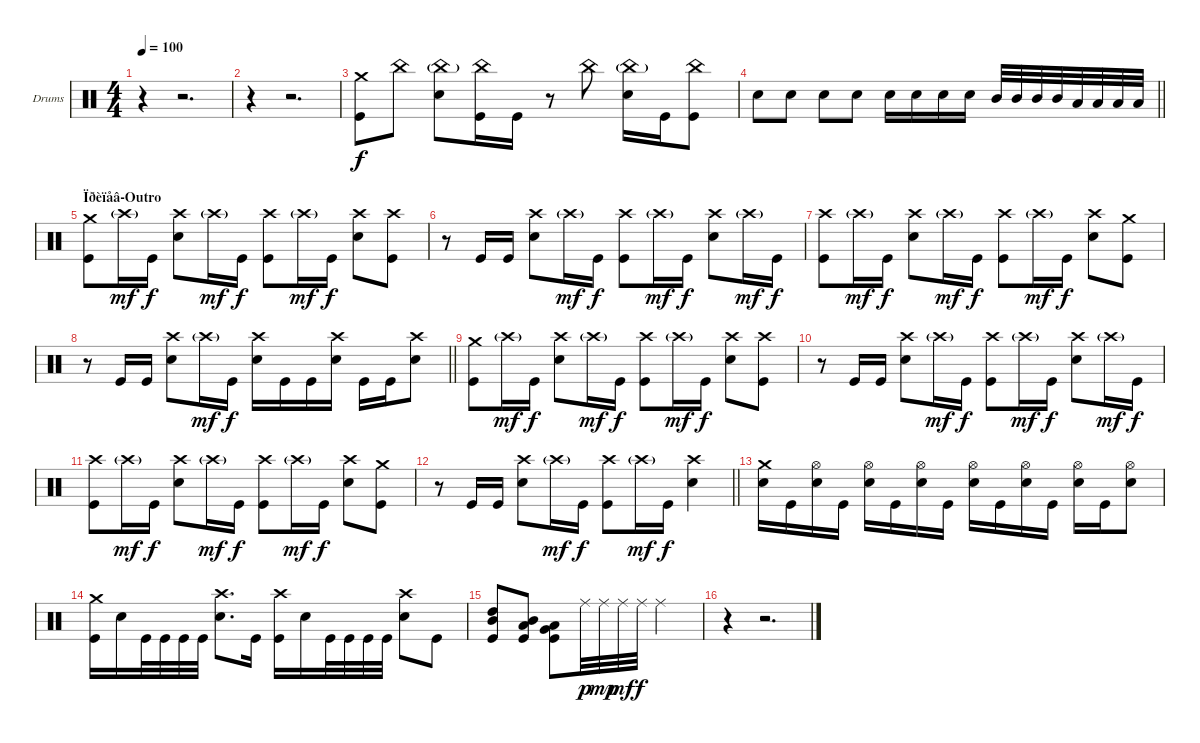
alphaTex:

\bracketExtendMode groupsimilarinstruments
\firstSystemTrackNameOrientation horizontal
\otherSystemsTrackNameOrientation horizontal
\track ("Drumkit" "Drums") {instrument percussion}
\staff {score}
\articulation defaults
\ts (4 4)
\tempo 100
\clef neutral
\ks c
r.4{dy p} r.2{d} |
r.4 r.2{d} |
("Crash medium (hit)" "Kick (hit)").8{dy f} "China (hit)".8 ("China (hit)"{g} "Snare (hit) 2").8 ("China (hit)" "Kick (hit)").16 "Kick (hit)".16 r.8 "China (hit)".8 ("China (hit)"{g} "Snare (hit) 2").16 "Kick (hit)".16 ("China (hit)" "Kick (hit)").8 |
\barLineRight lightlight "Snare (hit) 2".8 "Snare (hit) 2".8 "Snare (hit) 2".8 "Snare (hit) 2".8 "Snare (hit) 2".16 "Snare (hit) 2".16 "Snare (hit) 2".16 "Snare (hit) 2".16 "Mid Tom (hit)".32 "Mid Tom (hit)".32 "Mid Tom (hit)".32 "Mid Tom (hit)".32 "Low Tom (hit)".32 "Low Tom (hit)".32 "Low Tom (hit)".32 "Low Tom (hit)".32
|
\section ("" "Ïðèïåâ-Outro")
("Crash medium (hit)" "Kick (hit)").8 "Crash high (hit)"{g}.16{dy mf} "Kick (hit)".16{dy f} ("Crash high (hit)" "Snare (hit) 2").8 "Crash high (hit)"{g}.16{dy mf} "Kick (hit)".16{dy f} ("Crash high (hit)" "Kick (hit)").8 "Crash high (hit)"{g}.16{dy mf} "Kick (hit)".16{dy f} ("Crash high (hit)" "Snare (hit) 2").8 ("Crash high (hit)" "Kick (hit)").8 |
r.8 "Kick (hit)".16 "Kick (hit)".16 ("Crash high (hit)" "Snare (hit) 2").8 "Crash high (hit)"{g}.16{dy mf} "Kick (hit)".16{dy f} ("Crash high (hit)" "Kick (hit)").8 "Crash high (hit)"{g}.16{dy mf} "Kick (hit)".16{dy f} ("Crash high (hit)" "Snare (hit) 2").8 "Crash high (hit)"{g}.16{dy mf} "Kick (hit)".16{dy f} |
("Crash high (hit)" "Kick (hit)").8 "Crash high (hit)"{g}.16{dy mf} "Kick (hit)".16{dy f} ("Crash high (hit)" "Snare (hit) 2").8 "Crash high (hit)"{g}.16{dy mf} "Kick (hit)".16{dy f} ("Crash high (hit)" "Kick (hit)").8 "Crash high (hit)"{g}.16{dy mf} "Kick (hit)".16{dy f} ("Crash high (hit)" "Snare (hit) 2").8 ("Crash medium (hit)" "Kick (hit)").8 |
\barLineRight lightlight
r.8 "Kick (hit)".16 "Kick (hit)".16 ("Crash high (hit)" "Snare (hit) 2").8 "Crash high (hit)"{g}.16{dy mf} "Kick (hit)".16{dy f} ("Crash high (hit)" "Snare (hit) 2").16 "Kick (hit)".16 "Kick (hit)".16 ("Crash high (hit)" "Snare (hit) 2").16 "Kick (hit)".16 "Kick (hit)".16 ("Crash high (hit)" "Snare (hit) 2").8 |
("Crash medium (hit)" "Kick (hit)").8 "Crash high (hit)"{g}.16{dy mf} "Kick (hit)".16{dy f} ("Crash high (hit)" "Snare (hit) 2").8 "Crash high (hit)"{g}.16{dy mf} "Kick (hit)".16{dy f} ("Crash high (hit)" "Kick (hit)").8 "Crash high (hit)"{g}.16{dy mf} "Kick (hit)".16{dy f} ("Crash high (hit)" "Snare (hit) 2").8 ("Crash high (hit)" "Kick (hit)").8 |
r.8 "Kick (hit)".16 "Kick (hit)".16 ("Crash high (hit)" "Snare (hit) 2").8 "Crash high (hit)"{g}.16{dy mf} "Kick (hit)".16{dy f} ("Crash high (hit)" "Kick (hit)").8 "Crash high (hit)"{g}.16{dy mf} "Kick (hit)".16{dy f} ("Crash high (hit)" "Snare (hit) 2").8 "Crash high (hit)"{g}.16{dy mf} "Kick (hit)".16{dy f} |
("Crash high (hit)" "Kick (hit)").8 "Crash high (hit)"{g}.16{dy mf} "Kick (hit)".16{dy f} ("Crash high (hit)" "Snare (hit) 2").8 "Crash high (hit)"{g}.16{dy mf} "Kick (hit)".16{dy f} ("Crash high (hit)" "Kick (hit)").8 "Crash high (hit)"{g}.16{dy mf} "Kick (hit)".16{dy f} ("Crash high (hit)" "Snare (hit) 2").8 ("Crash medium (hit)" "Kick (hit)").8 |
\barLineRight lightlight
r.8 "Kick (hit)".16 "Kick (hit)".16 ("Crash high (hit)" "Snare (hit) 2").8 "Crash high (hit)"{g}.16{dy mf} "Kick (hit)".16{dy f} ("Crash high (hit)" "Kick (hit)").8 "Crash high (hit)"{g}.16{dy mf} "Kick (hit)".16{dy f} ("Crash high (hit)" "Snare (hit) 2").4 |
("Crash medium (hit)" "Snare (hit) 2").16 "Kick (hit)".16 ("Hi-Hat (open)" "Snare (hit) 2").16 "Kick (hit)".16 ("Hi-Hat (open)" "Snare (hit) 2").16 "Kick (hit)".16 ("Hi-Hat (open)" "Snare (hit) 2").16 "Kick (hit)".16 ("Hi-Hat (open)" "Snare (hit) 2").16 "Kick (hit)".16 ("Hi-Hat (open)" "Snare (hit) 2").16 "Kick (hit)".16 ("Hi-Hat (open)" "Snare (hit) 2").16 "Kick (hit)".16 ("Hi-Hat (open)" "Snare (hit) 2").8 |
("Crash medium (hit)" "Kick (hit)").16 "Snare (hit) 2".16 "Kick (hit)".32 "Kick (hit)".32 "Kick (hit)".32 "Kick (hit)".32 ("Crash high (hit)" "Snare (hit) 2").8{d} "Kick (hit)".16 ("Crash high (hit)" "Kick (hit)").16 "Snare (hit) 2".16 "Kick (hit)".32 "Kick (hit)".32 "Kick (hit)".32 "Kick (hit)".32 ("Crash high (hit)" "Snare (hit) 2").8 "Kick (hit)".8 |
("High Tom (hit)" "Mid Tom (hit)" "Kick (hit)").8 ("Mid Tom (hit)" "Low Tom (hit)" "Kick (hit)").8 ("Low Tom (hit)" "Very Low Tom (hit)" "Kick (hit)").8 "Ride (middle)".32{dy p} "Ride (middle)".32{dy mp} "Ride (middle)".32{dy mf} "Ride (middle)".32{dy f} "Ride (middle)".2 |
r.4 r.2{d}
